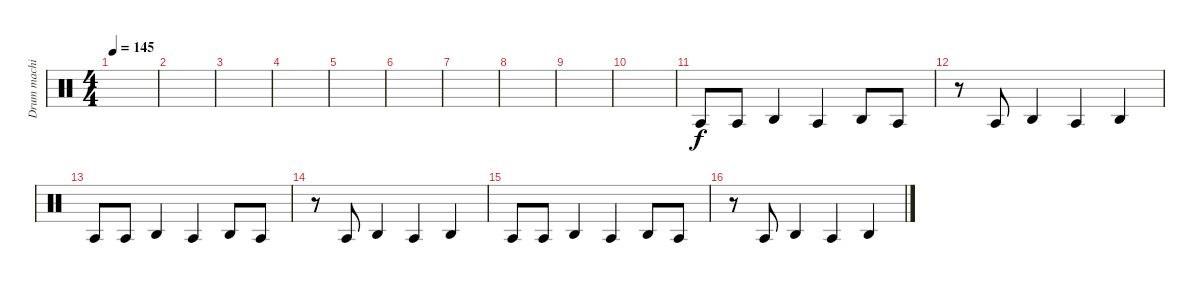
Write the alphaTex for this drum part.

\track ("Drum machine" "Drum machi") {instrument percussion}
\staff {score}
\articulation defaults
\ts (4 4)
\tempo 145
\clef neutral
\ks c
|
|
|
|
|
|
|
|
|
|
"Agogo tow (hit)".8 "Agogo tow (hit)".8 "Agogo high (hit)".4 "Agogo tow (hit)".4 "Agogo high (hit)".8 "Agogo tow (hit)".8 |
r.8 "Agogo tow (hit)".8 "Agogo high (hit)".4 "Agogo tow (hit)".4 "Agogo high (hit)".4 |
"Agogo tow (hit)".8 "Agogo tow (hit)".8 "Agogo high (hit)".4 "Agogo tow (hit)".4 "Agogo high (hit)".8 "Agogo tow (hit)".8 |
r.8 "Agogo tow (hit)".8 "Agogo high (hit)".4 "Agogo tow (hit)".4 "Agogo high (hit)".4 |
"Agogo tow (hit)".8 "Agogo tow (hit)".8 "Agogo high (hit)".4 "Agogo tow (hit)".4 "Agogo high (hit)".8 "Agogo tow (hit)".8 |
r.8 "Agogo tow (hit)".8 "Agogo high (hit)".4 "Agogo tow (hit)".4 "Agogo high (hit)".4
